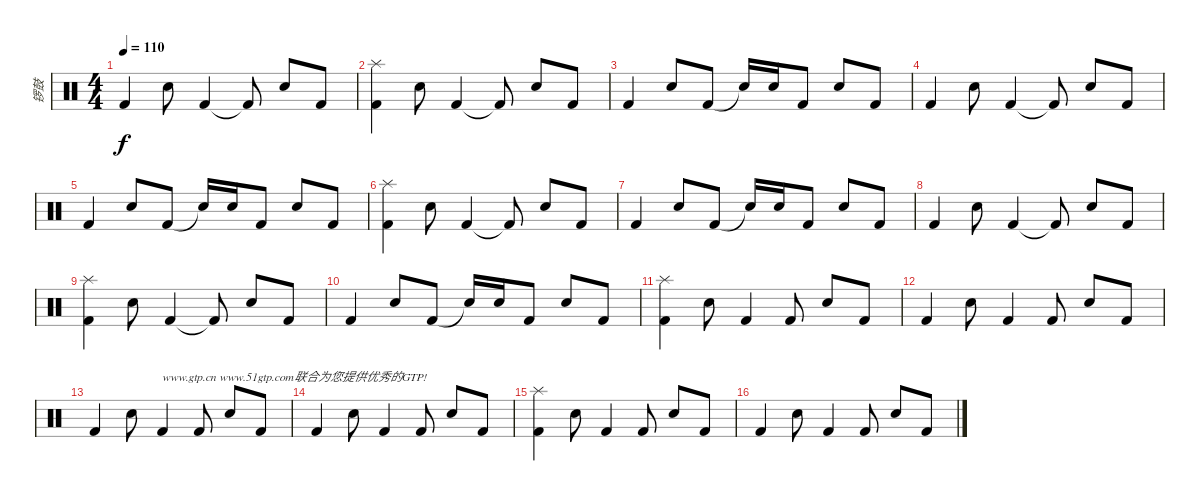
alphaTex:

\track ("锣鼓" "锣鼓") {instrument percussion}
\staff {score}
\articulation defaults
\ts (4 4)
\tempo 110
\clef neutral
\ks c "Kick (hit) 2".4{dy f} "Snare (hit) 2".8 "Kick (hit) 2".4 "Kick (hit) 2"{t}.8 "Snare (hit) 2".8 "Kick (hit) 2".8
|
("Kick (hit) 2" "Splash (hit)").4 "Snare (hit) 2".8 "Kick (hit) 2".4 "Kick (hit) 2"{t}.8 "Snare (hit) 2".8 "Kick (hit) 2".8 |
"Kick (hit) 2".4 "Snare (hit) 2".8 "Kick (hit) 2".8 "Snare (hit)"{t}.16 "Snare (hit) 2".16 "Kick (hit) 2".8 "Snare (hit) 2".8 "Kick (hit) 2".8 |
"Kick (hit) 2".4 "Snare (hit) 2".8 "Kick (hit) 2".4 "Kick (hit) 2"{t}.8 "Snare (hit) 2".8 "Kick (hit) 2".8 |
"Kick (hit) 2".4 "Snare (hit) 2".8 "Kick (hit) 2".8 "Snare (hit)"{t}.16 "Snare (hit) 2".16 "Kick (hit) 2".8 "Snare (hit) 2".8 "Kick (hit) 2".8 |
("Kick (hit) 2" "Splash (hit)").4 "Snare (hit) 2".8 "Kick (hit) 2".4 "Kick (hit) 2"{t}.8 "Snare (hit) 2".8 "Kick (hit) 2".8 |
"Kick (hit) 2".4 "Snare (hit) 2".8 "Kick (hit) 2".8 "Snare (hit)"{t}.16 "Snare (hit) 2".16 "Kick (hit) 2".8 "Snare (hit) 2".8 "Kick (hit) 2".8 |
"Kick (hit) 2".4 "Snare (hit) 2".8 "Kick (hit) 2".4 "Kick (hit) 2"{t}.8 "Snare (hit) 2".8 "Kick (hit) 2".8 |
("Kick (hit) 2" "Splash (hit)").4 "Snare (hit) 2".8 "Kick (hit) 2".4 "Kick (hit) 2"{t}.8 "Snare (hit) 2".8 "Kick (hit) 2".8 |
"Kick (hit) 2".4 "Snare (hit) 2".8 "Kick (hit) 2".8 "Snare (hit)"{t}.16 "Snare (hit) 2".16 "Kick (hit) 2".8 "Snare (hit) 2".8 "Kick (hit) 2".8 |
("Kick (hit) 2" "Splash (hit)").4 "Snare (hit) 2".8 "Kick (hit) 2".4 "Kick (hit) 2".8 "Snare (hit) 2".8 "Kick (hit) 2".8 |
"Kick (hit) 2".4 "Snare (hit) 2".8 "Kick (hit) 2".4 "Kick (hit) 2".8 "Snare (hit) 2".8 "Kick (hit) 2".8 |
"Kick (hit) 2".4 "Snare (hit) 2".8 "Kick (hit) 2".4{txt "www.gtp.cn www.51gtp.com联合为您提供优秀的GTP!"} "Kick (hit) 2".8 "Snare (hit) 2".8 "Kick (hit) 2".8 |
"Kick (hit) 2".4 "Snare (hit) 2".8 "Kick (hit) 2".4 "Kick (hit) 2".8 "Snare (hit) 2".8 "Kick (hit) 2".8 |
("Kick (hit) 2" "Splash (hit)").4 "Snare (hit) 2".8 "Kick (hit) 2".4 "Kick (hit) 2".8 "Snare (hit) 2".8 "Kick (hit) 2".8 |
"Kick (hit) 2".4 "Snare (hit) 2".8 "Kick (hit) 2".4 "Kick (hit) 2".8 "Snare (hit) 2".8 "Kick (hit) 2".8
